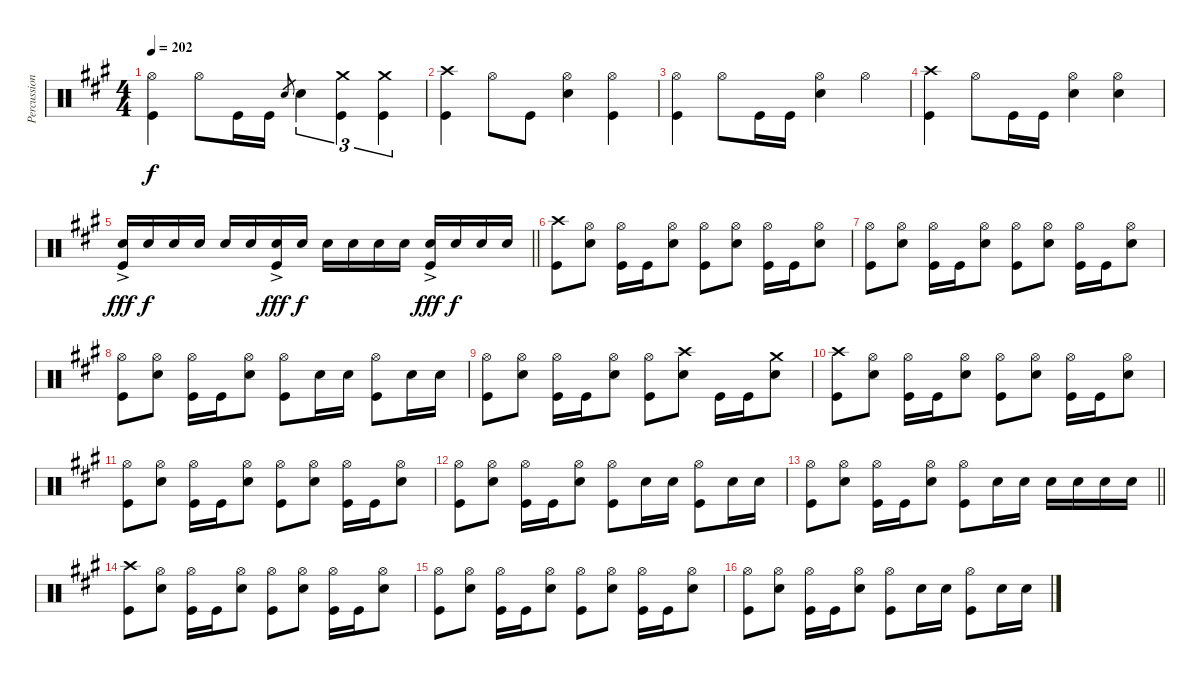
\track ("Percussion" "Percussion") {instrument percussion}
\staff {score}
\articulation defaults
\ts (4 4)
\tempo 202
\clef neutral
\ks a
("Hi-Hat (open)" "Kick (hit)").4{dy f} "Hi-Hat (open)".8 "Kick (hit)".16 "Kick (hit)".16 "Electric Snare (hit)".8{gr} "Electric Snare (hit)".4{tu (3 2)} ("Crash medium (hit)" "Kick (hit)").4{tu (3 2)} ("Crash medium (hit)" "Kick (hit)").4{tu (3 2)} |
("Crash high (hit)" "Kick (hit)").4 "Hi-Hat (open)".8 "Kick (hit)".8 ("Hi-Hat (open)" "Electric Snare (hit)").4 ("Hi-Hat (open)" "Kick (hit)").4 |
("Hi-Hat (open)" "Kick (hit)").4 "Hi-Hat (open)".8 "Kick (hit)".16 "Kick (hit)".16 ("Hi-Hat (open)" "Electric Snare (hit)").4 "Hi-Hat (open)".4 |
("Crash high (hit)" "Kick (hit)").4 "Hi-Hat (open)".8 "Kick (hit)".16 "Kick (hit)".16 ("Hi-Hat (open)" "Electric Snare (hit)").4 ("Hi-Hat (open)" "Electric Snare (hit)").4 |
\barLineRight lightlight
("Electric Snare (hit)"{ac} "Kick (hit)").16{dy fff} "Electric Snare (hit)".16{dy f} "Electric Snare (hit)".16 "Electric Snare (hit)".16 "Electric Snare (hit)".16 "Electric Snare (hit)".16 ("Electric Snare (hit)"{ac} "Kick (hit)").16{dy fff} "Electric Snare (hit)".16{dy f} "Electric Snare (hit)".16 "Electric Snare (hit)".16 "Electric Snare (hit)".16 "Electric Snare (hit)".16 ("Electric Snare (hit)"{ac} "Kick (hit)").16{dy fff} "Electric Snare (hit)".16{dy f} "Electric Snare (hit)".16 "Electric Snare (hit)".16 |
("Crash high (hit)" "Kick (hit)").8 ("Hi-Hat (open)" "Electric Snare (hit)").8 ("Hi-Hat (open)" "Kick (hit)").16 "Kick (hit)".16 ("Hi-Hat (open)" "Electric Snare (hit)").8 ("Hi-Hat (open)" "Kick (hit)").8 ("Hi-Hat (open)" "Electric Snare (hit)").8 ("Hi-Hat (open)" "Kick (hit)").16 "Kick (hit)".16 ("Hi-Hat (open)" "Electric Snare (hit)").8 |
("Hi-Hat (open)" "Kick (hit)").8 ("Hi-Hat (open)" "Electric Snare (hit)").8 ("Hi-Hat (open)" "Kick (hit)").16 "Kick (hit)".16 ("Hi-Hat (open)" "Electric Snare (hit)").8 ("Hi-Hat (open)" "Kick (hit)").8 ("Hi-Hat (open)" "Electric Snare (hit)").8 ("Hi-Hat (open)" "Kick (hit)").16 "Kick (hit)".16 ("Hi-Hat (open)" "Electric Snare (hit)").8 |
("Hi-Hat (open)" "Kick (hit)").8 ("Hi-Hat (open)" "Electric Snare (hit)").8 ("Hi-Hat (open)" "Kick (hit)").16 "Kick (hit)".16 ("Hi-Hat (open)" "Electric Snare (hit)").8 ("Hi-Hat (open)" "Kick (hit)").8 "Electric Snare (hit)".16 "Electric Snare (hit)".16 ("Hi-Hat (open)" "Kick (hit)").8 "Electric Snare (hit)".16 "Electric Snare (hit)".16 |
("Hi-Hat (open)" "Kick (hit)").8 ("Hi-Hat (open)" "Electric Snare (hit)").8 ("Hi-Hat (open)" "Kick (hit)").16 "Kick (hit)".16 ("Hi-Hat (open)" "Electric Snare (hit)").8 ("Hi-Hat (open)" "Kick (hit)").8 ("Crash high (hit)" "Electric Snare (hit)").8 "Kick (hit)".16 "Kick (hit)".16 ("Crash medium (hit)" "Electric Snare (hit)").8 |
("Crash high (hit)" "Kick (hit)").8 ("Hi-Hat (open)" "Electric Snare (hit)").8 ("Hi-Hat (open)" "Kick (hit)").16 "Kick (hit)".16 ("Hi-Hat (open)" "Electric Snare (hit)").8 ("Hi-Hat (open)" "Kick (hit)").8 ("Hi-Hat (open)" "Electric Snare (hit)").8 ("Hi-Hat (open)" "Kick (hit)").16 "Kick (hit)".16 ("Hi-Hat (open)" "Electric Snare (hit)").8 |
("Hi-Hat (open)" "Kick (hit)").8 ("Hi-Hat (open)" "Electric Snare (hit)").8 ("Hi-Hat (open)" "Kick (hit)").16 "Kick (hit)".16 ("Hi-Hat (open)" "Electric Snare (hit)").8 ("Hi-Hat (open)" "Kick (hit)").8 ("Hi-Hat (open)" "Electric Snare (hit)").8 ("Hi-Hat (open)" "Kick (hit)").16 "Kick (hit)".16 ("Hi-Hat (open)" "Electric Snare (hit)").8 |
("Hi-Hat (open)" "Kick (hit)").8 ("Hi-Hat (open)" "Electric Snare (hit)").8 ("Hi-Hat (open)" "Kick (hit)").16 "Kick (hit)".16 ("Hi-Hat (open)" "Electric Snare (hit)").8 ("Hi-Hat (open)" "Kick (hit)").8 "Electric Snare (hit)".16 "Electric Snare (hit)".16 ("Hi-Hat (open)" "Kick (hit)").8 "Electric Snare (hit)".16 "Electric Snare (hit)".16 |
\barLineRight lightlight
("Hi-Hat (open)" "Kick (hit)").8 ("Hi-Hat (open)" "Electric Snare (hit)").8 ("Hi-Hat (open)" "Kick (hit)").16 "Kick (hit)".16 ("Hi-Hat (open)" "Electric Snare (hit)").8 ("Hi-Hat (open)" "Kick (hit)").8 "Electric Snare (hit)".16 "Electric Snare (hit)".16 "Electric Snare (hit)".16 "Electric Snare (hit)".16 "Electric Snare (hit)".16 "Electric Snare (hit)".16 |
("Crash high (hit)" "Kick (hit)").8 ("Hi-Hat (open)" "Electric Snare (hit)").8 ("Hi-Hat (open)" "Kick (hit)").16 "Kick (hit)".16 ("Hi-Hat (open)" "Electric Snare (hit)").8 ("Hi-Hat (open)" "Kick (hit)").8 ("Hi-Hat (open)" "Electric Snare (hit)").8 ("Hi-Hat (open)" "Kick (hit)").16 "Kick (hit)".16 ("Hi-Hat (open)" "Electric Snare (hit)").8 |
("Hi-Hat (open)" "Kick (hit)").8 ("Hi-Hat (open)" "Electric Snare (hit)").8 ("Hi-Hat (open)" "Kick (hit)").16 "Kick (hit)".16 ("Hi-Hat (open)" "Electric Snare (hit)").8 ("Hi-Hat (open)" "Kick (hit)").8 ("Hi-Hat (open)" "Electric Snare (hit)").8 ("Hi-Hat (open)" "Kick (hit)").16 "Kick (hit)".16 ("Hi-Hat (open)" "Electric Snare (hit)").8 |
("Hi-Hat (open)" "Kick (hit)").8 ("Hi-Hat (open)" "Electric Snare (hit)").8 ("Hi-Hat (open)" "Kick (hit)").16 "Kick (hit)".16 ("Hi-Hat (open)" "Electric Snare (hit)").8 ("Hi-Hat (open)" "Kick (hit)").8 "Electric Snare (hit)".16 "Electric Snare (hit)".16 ("Hi-Hat (open)" "Kick (hit)").8 "Electric Snare (hit)".16 "Electric Snare (hit)".16
